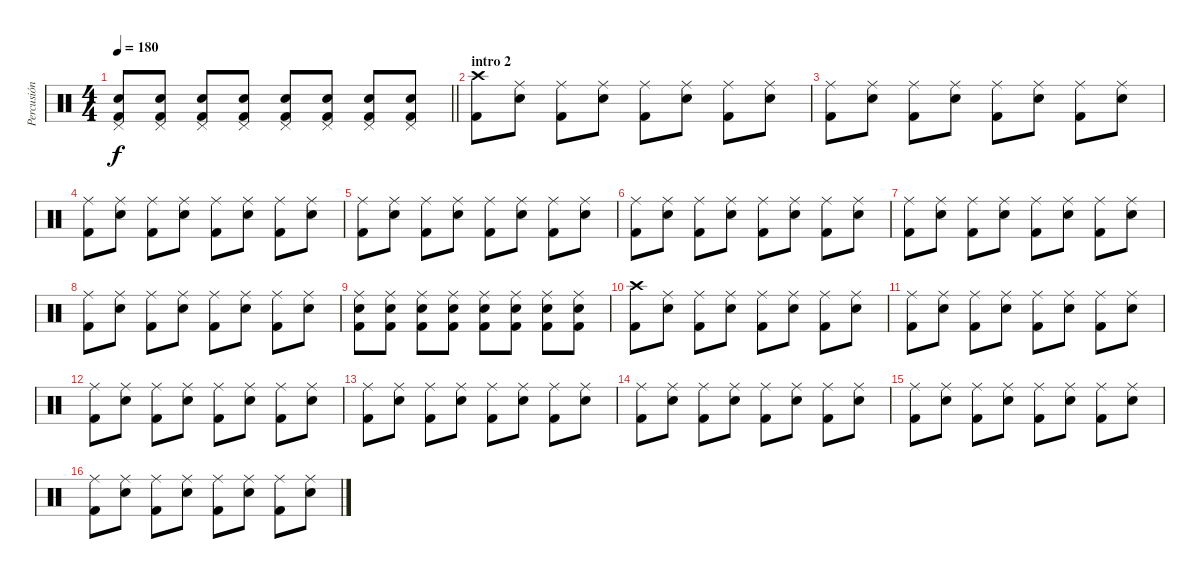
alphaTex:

\track ("Percusión" "Percusión") {instrument percussion}
\staff {score}
\articulation defaults
\ts (4 4)
\tempo 180
\clef neutral
\barLineRight lightlight
\ks c
("Pedal Hi-Hat (hit)" "Electric Snare (hit)" "Kick (hit) 2").8{dy f} ("Pedal Hi-Hat (hit)" "Electric Snare (hit)" "Kick (hit) 2").8 ("Pedal Hi-Hat (hit)" "Electric Snare (hit)" "Kick (hit) 2").8 ("Pedal Hi-Hat (hit)" "Electric Snare (hit)" "Kick (hit) 2").8 ("Pedal Hi-Hat (hit)" "Electric Snare (hit)" "Kick (hit) 2").8 ("Pedal Hi-Hat (hit)" "Electric Snare (hit)" "Kick (hit) 2").8 ("Pedal Hi-Hat (hit)" "Electric Snare (hit)" "Kick (hit) 2").8 ("Pedal Hi-Hat (hit)" "Electric Snare (hit)" "Kick (hit) 2").8 |
\section ("" "intro 2")
("Crash high (hit)" "Kick (hit) 2").8 ("Ride (middle)" "Electric Snare (hit)").8 ("Ride (middle)" "Kick (hit) 2").8 ("Ride (middle)" "Electric Snare (hit)").8 ("Ride (middle)" "Kick (hit) 2").8 ("Ride (middle)" "Electric Snare (hit)").8 ("Ride (middle)" "Kick (hit) 2").8 ("Ride (middle)" "Electric Snare (hit)").8 |
("Ride (middle)" "Kick (hit) 2").8 ("Ride (middle)" "Electric Snare (hit)").8 ("Ride (middle)" "Kick (hit) 2").8 ("Ride (middle)" "Electric Snare (hit)").8 ("Ride (middle)" "Kick (hit) 2").8 ("Ride (middle)" "Electric Snare (hit)").8 ("Ride (middle)" "Kick (hit) 2").8 ("Ride (middle)" "Electric Snare (hit)").8 |
("Ride (middle)" "Kick (hit) 2").8 ("Ride (middle)" "Electric Snare (hit)").8 ("Ride (middle)" "Kick (hit) 2").8 ("Ride (middle)" "Electric Snare (hit)").8 ("Ride (middle)" "Kick (hit) 2").8 ("Ride (middle)" "Electric Snare (hit)").8 ("Ride (middle)" "Kick (hit) 2").8 ("Ride (middle)" "Electric Snare (hit)").8 |
("Ride (middle)" "Kick (hit) 2").8 ("Ride (middle)" "Electric Snare (hit)").8 ("Ride (middle)" "Kick (hit) 2").8 ("Ride (middle)" "Electric Snare (hit)").8 ("Ride (middle)" "Kick (hit) 2").8 ("Ride (middle)" "Electric Snare (hit)").8 ("Ride (middle)" "Kick (hit) 2").8 ("Ride (middle)" "Electric Snare (hit)").8 |
("Ride (middle)" "Kick (hit) 2").8 ("Ride (middle)" "Electric Snare (hit)").8 ("Ride (middle)" "Kick (hit) 2").8 ("Ride (middle)" "Electric Snare (hit)").8 ("Ride (middle)" "Kick (hit) 2").8 ("Ride (middle)" "Electric Snare (hit)").8 ("Ride (middle)" "Kick (hit) 2").8 ("Ride (middle)" "Electric Snare (hit)").8 |
("Ride (middle)" "Kick (hit) 2").8 ("Ride (middle)" "Electric Snare (hit)").8 ("Ride (middle)" "Kick (hit) 2").8 ("Ride (middle)" "Electric Snare (hit)").8 ("Ride (middle)" "Kick (hit) 2").8 ("Ride (middle)" "Electric Snare (hit)").8 ("Ride (middle)" "Kick (hit) 2").8 ("Ride (middle)" "Electric Snare (hit)").8 |
("Ride (middle)" "Kick (hit) 2").8 ("Ride (middle)" "Electric Snare (hit)").8 ("Ride (middle)" "Kick (hit) 2").8 ("Ride (middle)" "Electric Snare (hit)").8 ("Ride (middle)" "Kick (hit) 2").8 ("Ride (middle)" "Electric Snare (hit)").8 ("Ride (middle)" "Kick (hit) 2").8 ("Ride (middle)" "Electric Snare (hit)").8 |
("Ride (middle)" "Electric Snare (hit)" "Kick (hit) 2").8 ("Ride (middle)" "Electric Snare (hit)" "Kick (hit) 2").8 ("Ride (middle)" "Electric Snare (hit)" "Kick (hit) 2").8 ("Ride (middle)" "Electric Snare (hit)" "Kick (hit) 2").8 ("Ride (middle)" "Electric Snare (hit)" "Kick (hit) 2").8 ("Ride (middle)" "Electric Snare (hit)" "Kick (hit) 2").8 ("Ride (middle)" "Electric Snare (hit)" "Kick (hit) 2").8 ("Ride (middle)" "Electric Snare (hit)" "Kick (hit) 2").8 |
("Crash high (hit)" "Kick (hit) 2").8 ("Ride (middle)" "Electric Snare (hit)").8 ("Ride (middle)" "Kick (hit) 2").8 ("Ride (middle)" "Electric Snare (hit)").8 ("Ride (middle)" "Kick (hit) 2").8 ("Ride (middle)" "Electric Snare (hit)").8 ("Ride (middle)" "Kick (hit) 2").8 ("Ride (middle)" "Electric Snare (hit)").8 |
("Ride (middle)" "Kick (hit) 2").8 ("Ride (middle)" "Electric Snare (hit)").8 ("Ride (middle)" "Kick (hit) 2").8 ("Ride (middle)" "Electric Snare (hit)").8 ("Ride (middle)" "Kick (hit) 2").8 ("Ride (middle)" "Electric Snare (hit)").8 ("Ride (middle)" "Kick (hit) 2").8 ("Ride (middle)" "Electric Snare (hit)").8 |
("Ride (middle)" "Kick (hit) 2").8 ("Ride (middle)" "Electric Snare (hit)").8 ("Ride (middle)" "Kick (hit) 2").8 ("Ride (middle)" "Electric Snare (hit)").8 ("Ride (middle)" "Kick (hit) 2").8 ("Ride (middle)" "Electric Snare (hit)").8 ("Ride (middle)" "Kick (hit) 2").8 ("Ride (middle)" "Electric Snare (hit)").8 |
("Ride (middle)" "Kick (hit) 2").8 ("Ride (middle)" "Electric Snare (hit)").8 ("Ride (middle)" "Kick (hit) 2").8 ("Ride (middle)" "Electric Snare (hit)").8 ("Ride (middle)" "Kick (hit) 2").8 ("Ride (middle)" "Electric Snare (hit)").8 ("Ride (middle)" "Kick (hit) 2").8 ("Ride (middle)" "Electric Snare (hit)").8 |
("Ride (middle)" "Kick (hit) 2").8 ("Ride (middle)" "Electric Snare (hit)").8 ("Ride (middle)" "Kick (hit) 2").8 ("Ride (middle)" "Electric Snare (hit)").8 ("Ride (middle)" "Kick (hit) 2").8 ("Ride (middle)" "Electric Snare (hit)").8 ("Ride (middle)" "Kick (hit) 2").8 ("Ride (middle)" "Electric Snare (hit)").8 |
("Ride (middle)" "Kick (hit) 2").8 ("Ride (middle)" "Electric Snare (hit)").8 ("Ride (middle)" "Kick (hit) 2").8 ("Ride (middle)" "Electric Snare (hit)").8 ("Ride (middle)" "Kick (hit) 2").8 ("Ride (middle)" "Electric Snare (hit)").8 ("Ride (middle)" "Kick (hit) 2").8 ("Ride (middle)" "Electric Snare (hit)").8 |
("Ride (middle)" "Kick (hit) 2").8 ("Ride (middle)" "Electric Snare (hit)").8 ("Ride (middle)" "Kick (hit) 2").8 ("Ride (middle)" "Electric Snare (hit)").8 ("Ride (middle)" "Kick (hit) 2").8 ("Ride (middle)" "Electric Snare (hit)").8 ("Ride (middle)" "Kick (hit) 2").8 ("Ride (middle)" "Electric Snare (hit)").8
